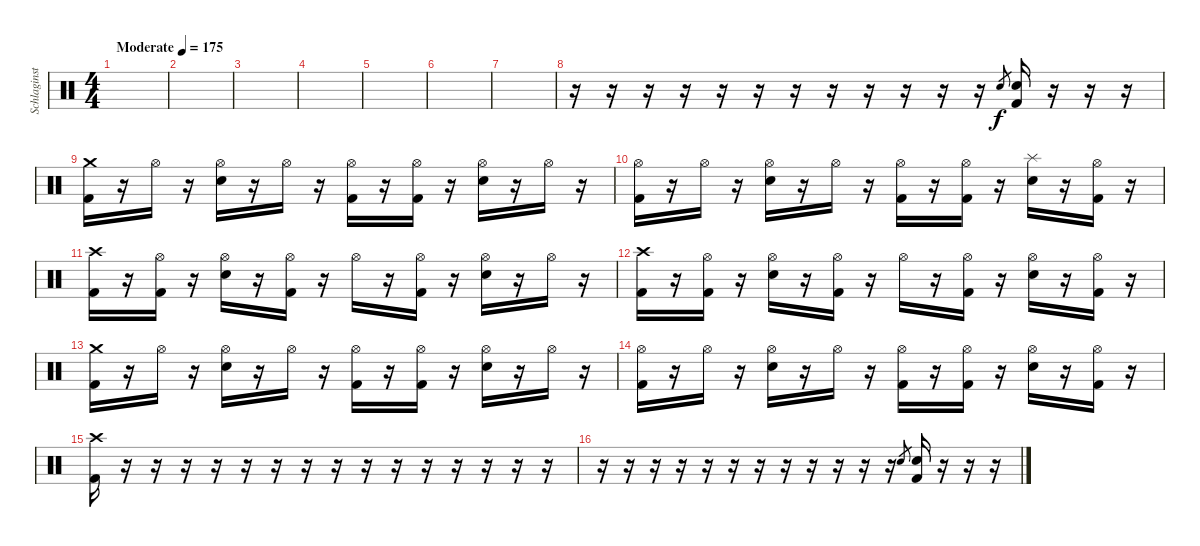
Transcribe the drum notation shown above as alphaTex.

\track ("Schlaginstrumente - Auswahl" "Schlaginst") {instrument percussion}
\staff {score}
\articulation defaults
\ts (4 4)
\tempo (175 "Moderate")
\clef neutral
\ks c
|
|
|
|
|
|
|
r.16 r.16 r.16 r.16 r.16 r.16 r.16 r.16 r.16 r.16 r.16 r.16 "Electric Snare (hit)".8{gr} ("Electric Snare (hit)" "Kick (hit) 2").16 r.16 r.16 r.16 |
("Crash medium (hit)" "Kick (hit) 2").16 r.16 "Hi-Hat (open)".16 r.16 ("Hi-Hat (open)" "Electric Snare (hit)").16 r.16 "Hi-Hat (open)".16 r.16 ("Hi-Hat (open)" "Kick (hit) 2").16 r.16 ("Hi-Hat (open)" "Kick (hit) 2").16 r.16 ("Hi-Hat (open)" "Electric Snare (hit)").16 r.16 "Hi-Hat (open)".16 r.16 |
("Hi-Hat (open)" "Kick (hit) 2").16 r.16 "Hi-Hat (open)".16 r.16 ("Hi-Hat (open)" "Electric Snare (hit)").16 r.16 "Hi-Hat (open)".16 r.16 ("Hi-Hat (open)" "Kick (hit) 2").16 r.16 ("Hi-Hat (open)" "Kick (hit) 2").16 r.16 ("Splash (hit)" "Electric Snare (hit)").16 r.16 ("Hi-Hat (open)" "Kick (hit) 2").16 r.16 |
("Crash high (hit)" "Kick (hit) 2").16 r.16 ("Hi-Hat (open)" "Kick (hit) 2").16 r.16 ("Hi-Hat (open)" "Electric Snare (hit)").16 r.16 ("Hi-Hat (open)" "Kick (hit) 2").16 r.16 "Hi-Hat (open)".16 r.16 ("Hi-Hat (open)" "Kick (hit) 2").16 r.16 ("Hi-Hat (open)" "Electric Snare (hit)").16 r.16 "Hi-Hat (open)".16 r.16 |
("Crash high (hit)" "Kick (hit) 2").16 r.16 ("Hi-Hat (open)" "Kick (hit) 2").16 r.16 ("Hi-Hat (open)" "Electric Snare (hit)").16 r.16 ("Hi-Hat (open)" "Kick (hit) 2").16 r.16 "Hi-Hat (open)".16 r.16 ("Hi-Hat (open)" "Kick (hit) 2").16 r.16 ("Hi-Hat (open)" "Electric Snare (hit)").16 r.16 ("Hi-Hat (open)" "Kick (hit) 2").16 r.16 |
("Crash medium (hit)" "Kick (hit) 2").16 r.16 "Hi-Hat (open)".16 r.16 ("Hi-Hat (open)" "Electric Snare (hit)").16 r.16 "Hi-Hat (open)".16 r.16 ("Hi-Hat (open)" "Kick (hit) 2").16 r.16 ("Hi-Hat (open)" "Kick (hit) 2").16 r.16 ("Hi-Hat (open)" "Electric Snare (hit)").16 r.16 "Hi-Hat (open)".16 r.16 |
("Hi-Hat (open)" "Kick (hit) 2").16 r.16 "Hi-Hat (open)".16 r.16 ("Hi-Hat (open)" "Electric Snare (hit)").16 r.16 "Hi-Hat (open)".16 r.16 ("Hi-Hat (open)" "Kick (hit) 2").16 r.16 ("Hi-Hat (open)" "Kick (hit) 2").16 r.16 ("Hi-Hat (open)" "Electric Snare (hit)").16 r.16 ("Hi-Hat (open)" "Kick (hit) 2").16 r.16 |
("Crash high (hit)" "Kick (hit) 2").16 r.16 r.16 r.16 r.16 r.16 r.16 r.16 r.16 r.16 r.16 r.16 r.16 r.16 r.16 r.16 |
r.16 r.16 r.16 r.16 r.16 r.16 r.16 r.16 r.16 r.16 r.16 r.16 "Electric Snare (hit)".8{gr} ("Electric Snare (hit)" "Kick (hit) 2").16 r.16 r.16 r.16
